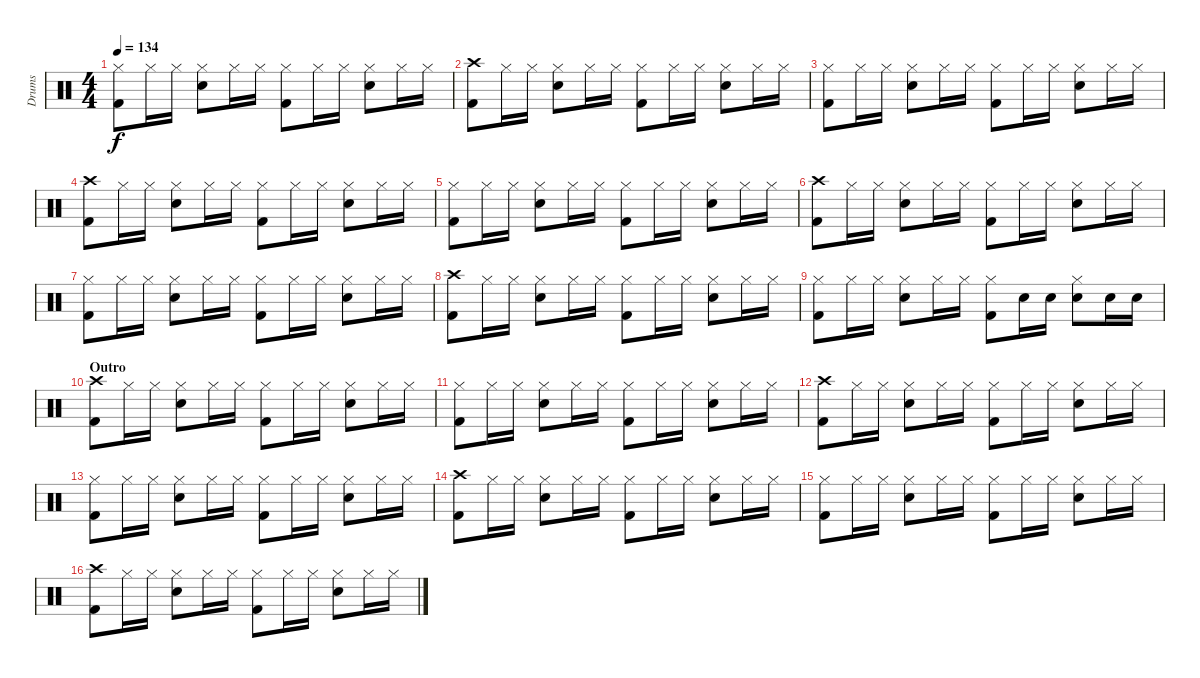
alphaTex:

\track ("Drums" "Drums") {instrument percussion}
\staff {score}
\articulation defaults
\ts (4 4)
\tempo 134
\clef neutral
\ks c
("Kick (hit) 2" "Hi-Hat (closed)").8{dy f} "Hi-Hat (closed)".16 "Hi-Hat (closed)".16 ("Snare (hit) 2" "Hi-Hat (closed)").8 "Hi-Hat (closed)".16 "Hi-Hat (closed)".16 ("Kick (hit) 2" "Hi-Hat (closed)").8 "Hi-Hat (closed)".16 "Hi-Hat (closed)".16 ("Snare (hit) 2" "Hi-Hat (closed)").8 "Hi-Hat (closed)".16 "Hi-Hat (closed)".16 |
("Kick (hit) 2" "Crash high (hit)").8 "Hi-Hat (closed)".16 "Hi-Hat (closed)".16 ("Snare (hit) 2" "Hi-Hat (closed)").8 "Hi-Hat (closed)".16 "Hi-Hat (closed)".16 ("Kick (hit) 2" "Hi-Hat (closed)").8 "Hi-Hat (closed)".16 "Hi-Hat (closed)".16 ("Snare (hit) 2" "Hi-Hat (closed)").8 "Hi-Hat (closed)".16 "Hi-Hat (closed)".16 |
("Kick (hit) 2" "Hi-Hat (closed)").8 "Hi-Hat (closed)".16 "Hi-Hat (closed)".16 ("Snare (hit) 2" "Hi-Hat (closed)").8 "Hi-Hat (closed)".16 "Hi-Hat (closed)".16 ("Kick (hit) 2" "Hi-Hat (closed)").8 "Hi-Hat (closed)".16 "Hi-Hat (closed)".16 ("Snare (hit) 2" "Hi-Hat (closed)").8 "Hi-Hat (closed)".16 "Hi-Hat (closed)".16 |
("Kick (hit) 2" "Crash high (hit)").8 "Hi-Hat (closed)".16 "Hi-Hat (closed)".16 ("Snare (hit) 2" "Hi-Hat (closed)").8 "Hi-Hat (closed)".16 "Hi-Hat (closed)".16 ("Kick (hit) 2" "Hi-Hat (closed)").8 "Hi-Hat (closed)".16 "Hi-Hat (closed)".16 ("Snare (hit) 2" "Hi-Hat (closed)").8 "Hi-Hat (closed)".16 "Hi-Hat (closed)".16 |
("Kick (hit) 2" "Hi-Hat (closed)").8 "Hi-Hat (closed)".16 "Hi-Hat (closed)".16 ("Snare (hit) 2" "Hi-Hat (closed)").8 "Hi-Hat (closed)".16 "Hi-Hat (closed)".16 ("Kick (hit) 2" "Hi-Hat (closed)").8 "Hi-Hat (closed)".16 "Hi-Hat (closed)".16 ("Snare (hit) 2" "Hi-Hat (closed)").8 "Hi-Hat (closed)".16 "Hi-Hat (closed)".16 |
("Kick (hit) 2" "Crash high (hit)").8 "Hi-Hat (closed)".16 "Hi-Hat (closed)".16 ("Snare (hit) 2" "Hi-Hat (closed)").8 "Hi-Hat (closed)".16 "Hi-Hat (closed)".16 ("Kick (hit) 2" "Hi-Hat (closed)").8 "Hi-Hat (closed)".16 "Hi-Hat (closed)".16 ("Snare (hit) 2" "Hi-Hat (closed)").8 "Hi-Hat (closed)".16 "Hi-Hat (closed)".16 |
("Kick (hit) 2" "Hi-Hat (closed)").8 "Hi-Hat (closed)".16 "Hi-Hat (closed)".16 ("Snare (hit) 2" "Hi-Hat (closed)").8 "Hi-Hat (closed)".16 "Hi-Hat (closed)".16 ("Kick (hit) 2" "Hi-Hat (closed)").8 "Hi-Hat (closed)".16 "Hi-Hat (closed)".16 ("Snare (hit) 2" "Hi-Hat (closed)").8 "Hi-Hat (closed)".16 "Hi-Hat (closed)".16 |
("Kick (hit) 2" "Crash high (hit)").8 "Hi-Hat (closed)".16 "Hi-Hat (closed)".16 ("Snare (hit) 2" "Hi-Hat (closed)").8 "Hi-Hat (closed)".16 "Hi-Hat (closed)".16 ("Kick (hit) 2" "Hi-Hat (closed)").8 "Hi-Hat (closed)".16 "Hi-Hat (closed)".16 ("Snare (hit) 2" "Hi-Hat (closed)").8 "Hi-Hat (closed)".16 "Hi-Hat (closed)".16 |
("Kick (hit) 2" "Hi-Hat (closed)").8 "Hi-Hat (closed)".16 "Hi-Hat (closed)".16 ("Snare (hit) 2" "Hi-Hat (closed)").8 "Hi-Hat (closed)".16 "Hi-Hat (closed)".16 ("Kick (hit) 2" "Hi-Hat (closed)").8 "Snare (hit) 2".16 "Snare (hit) 2".16 ("Snare (hit) 2" "Hi-Hat (closed)").8 "Snare (hit) 2".16 "Snare (hit) 2".16 |
\section ("" "Outro")
("Kick (hit) 2" "Crash high (hit)").8 "Hi-Hat (closed)".16 "Hi-Hat (closed)".16 ("Snare (hit) 2" "Hi-Hat (closed)").8 "Hi-Hat (closed)".16 "Hi-Hat (closed)".16 ("Kick (hit) 2" "Hi-Hat (closed)").8 "Hi-Hat (closed)".16 "Hi-Hat (closed)".16 ("Snare (hit) 2" "Hi-Hat (closed)").8 "Hi-Hat (closed)".16 "Hi-Hat (closed)".16 |
("Kick (hit) 2" "Hi-Hat (closed)").8 "Hi-Hat (closed)".16 "Hi-Hat (closed)".16 ("Snare (hit) 2" "Hi-Hat (closed)").8 "Hi-Hat (closed)".16 "Hi-Hat (closed)".16 ("Kick (hit) 2" "Hi-Hat (closed)").8 "Hi-Hat (closed)".16 "Hi-Hat (closed)".16 ("Snare (hit) 2" "Hi-Hat (closed)").8 "Hi-Hat (closed)".16 "Hi-Hat (closed)".16 |
("Kick (hit) 2" "Crash high (hit)").8 "Hi-Hat (closed)".16 "Hi-Hat (closed)".16 ("Snare (hit) 2" "Hi-Hat (closed)").8 "Hi-Hat (closed)".16 "Hi-Hat (closed)".16 ("Kick (hit) 2" "Hi-Hat (closed)").8 "Hi-Hat (closed)".16 "Hi-Hat (closed)".16 ("Snare (hit) 2" "Hi-Hat (closed)").8 "Hi-Hat (closed)".16 "Hi-Hat (closed)".16 |
("Kick (hit) 2" "Hi-Hat (closed)").8 "Hi-Hat (closed)".16 "Hi-Hat (closed)".16 ("Snare (hit) 2" "Hi-Hat (closed)").8 "Hi-Hat (closed)".16 "Hi-Hat (closed)".16 ("Kick (hit) 2" "Hi-Hat (closed)").8 "Hi-Hat (closed)".16 "Hi-Hat (closed)".16 ("Snare (hit) 2" "Hi-Hat (closed)").8 "Hi-Hat (closed)".16 "Hi-Hat (closed)".16 |
("Kick (hit) 2" "Crash high (hit)").8 "Hi-Hat (closed)".16 "Hi-Hat (closed)".16 ("Snare (hit) 2" "Hi-Hat (closed)").8 "Hi-Hat (closed)".16 "Hi-Hat (closed)".16 ("Kick (hit) 2" "Hi-Hat (closed)").8 "Hi-Hat (closed)".16 "Hi-Hat (closed)".16 ("Snare (hit) 2" "Hi-Hat (closed)").8 "Hi-Hat (closed)".16 "Hi-Hat (closed)".16 |
("Kick (hit) 2" "Hi-Hat (closed)").8 "Hi-Hat (closed)".16 "Hi-Hat (closed)".16 ("Snare (hit) 2" "Hi-Hat (closed)").8 "Hi-Hat (closed)".16 "Hi-Hat (closed)".16 ("Kick (hit) 2" "Hi-Hat (closed)").8 "Hi-Hat (closed)".16 "Hi-Hat (closed)".16 ("Snare (hit) 2" "Hi-Hat (closed)").8 "Hi-Hat (closed)".16 "Hi-Hat (closed)".16 |
("Kick (hit) 2" "Crash high (hit)").8 "Hi-Hat (closed)".16 "Hi-Hat (closed)".16 ("Snare (hit) 2" "Hi-Hat (closed)").8 "Hi-Hat (closed)".16 "Hi-Hat (closed)".16 ("Kick (hit) 2" "Hi-Hat (closed)").8 "Hi-Hat (closed)".16 "Hi-Hat (closed)".16 ("Snare (hit) 2" "Hi-Hat (closed)").8 "Hi-Hat (closed)".16 "Hi-Hat (closed)".16
